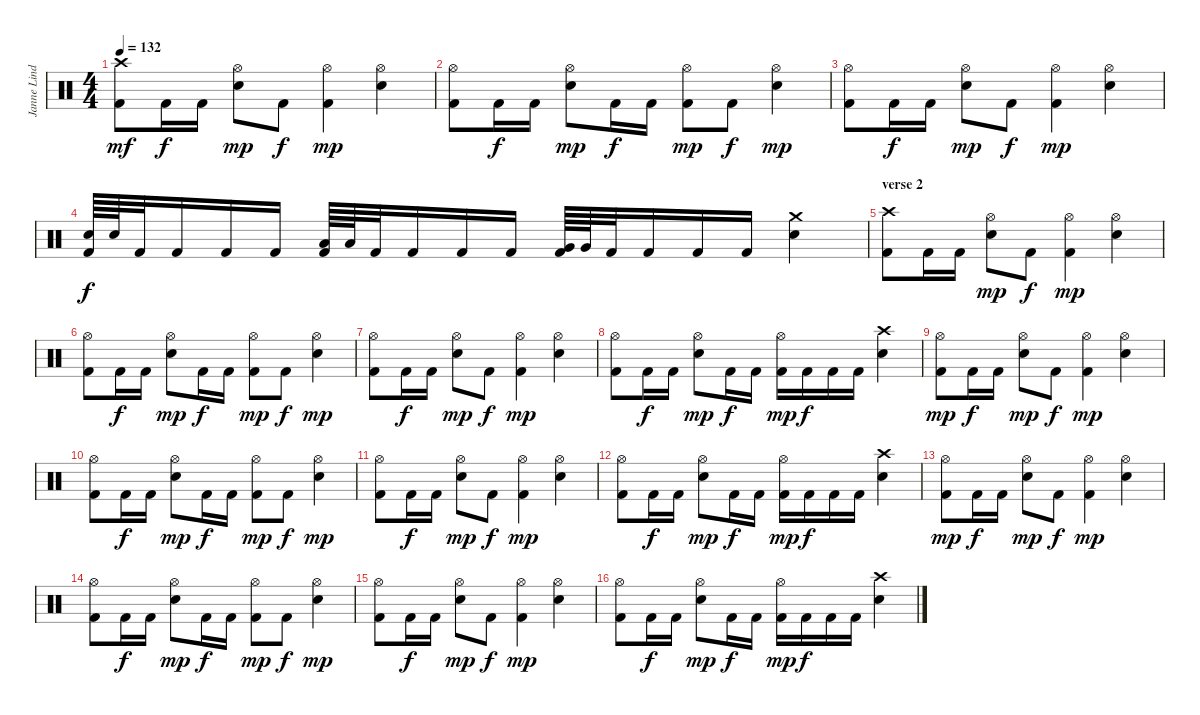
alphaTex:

\track ("Janne Lindh" "Janne Lind") {instrument percussion}
\staff {score}
\articulation defaults
\ts (4 4)
\tempo 132
\clef neutral
\ks c
("Kick (hit) 2" "Crash high (hit)").8{dy mf} "Kick (hit) 2".16{dy f} "Kick (hit) 2".16 ("Hi-Hat (open)" "Snare (hit) 2").8{dy mp} "Kick (hit) 2".8{dy f} ("Kick (hit) 2" "Hi-Hat (open)").4{dy mp} ("Hi-Hat (open)" "Snare (hit) 2").4 |
("Kick (hit) 2" "Hi-Hat (open)").8 "Kick (hit) 2".16{dy f} "Kick (hit) 2".16 ("Hi-Hat (open)" "Snare (hit) 2").8{dy mp} "Kick (hit) 2".16{dy f} "Kick (hit) 2".16 ("Kick (hit) 2" "Hi-Hat (open)").8{dy mp} "Kick (hit) 2".8{dy f} ("Hi-Hat (open)" "Snare (hit) 2").4{dy mp} |
("Kick (hit) 2" "Hi-Hat (open)").8 "Kick (hit) 2".16{dy f} "Kick (hit) 2".16 ("Hi-Hat (open)" "Snare (hit) 2").8{dy mp} "Kick (hit) 2".8{dy f} ("Kick (hit) 2" "Hi-Hat (open)").4{dy mp} ("Hi-Hat (open)" "Snare (hit) 2").4 |
("Kick (hit) 2" "Snare (hit) 2").64{dy f} "Snare (hit) 2".64 "Kick (hit) 2".32 "Kick (hit) 2".16 "Kick (hit) 2".16 "Kick (hit) 2".16 ("Kick (hit) 2" "Low Tom (hit)").64 "Low Tom (hit)".64 "Kick (hit) 2".32 "Kick (hit) 2".16 "Kick (hit) 2".16 "Kick (hit) 2".16 ("Kick (hit) 2" "Very Low Tom (hit)").64 "Very Low Tom (hit)".64 "Kick (hit) 2".32 "Kick (hit) 2".16 "Kick (hit) 2".16 "Kick (hit) 2".16 ("Crash medium (hit)" "Snare (hit) 2").4 |
\section ("" "verse 2")
("Kick (hit) 2" "Crash high (hit)").8 "Kick (hit) 2".16 "Kick (hit) 2".16 ("Hi-Hat (open)" "Snare (hit) 2").8{dy mp} "Kick (hit) 2".8{dy f} ("Kick (hit) 2" "Hi-Hat (open)").4{dy mp} ("Hi-Hat (open)" "Snare (hit) 2").4 |
("Kick (hit) 2" "Hi-Hat (open)").8 "Kick (hit) 2".16{dy f} "Kick (hit) 2".16 ("Hi-Hat (open)" "Snare (hit) 2").8{dy mp} "Kick (hit) 2".16{dy f} "Kick (hit) 2".16 ("Kick (hit) 2" "Hi-Hat (open)").8{dy mp} "Kick (hit) 2".8{dy f} ("Hi-Hat (open)" "Snare (hit) 2").4{dy mp} |
("Kick (hit) 2" "Hi-Hat (open)").8 "Kick (hit) 2".16{dy f} "Kick (hit) 2".16 ("Hi-Hat (open)" "Snare (hit) 2").8{dy mp} "Kick (hit) 2".8{dy f} ("Kick (hit) 2" "Hi-Hat (open)").4{dy mp} ("Hi-Hat (open)" "Snare (hit) 2").4 |
("Kick (hit) 2" "Hi-Hat (open)").8 "Kick (hit) 2".16{dy f} "Kick (hit) 2".16 ("Hi-Hat (open)" "Snare (hit) 2").8{dy mp} "Kick (hit) 2".16{dy f} "Kick (hit) 2".16 ("Kick (hit) 2" "Hi-Hat (open)").16{dy mp} "Kick (hit) 2".16{dy f} "Kick (hit) 2".16 "Kick (hit) 2".16 ("Crash high (hit)" "Snare (hit) 2").4 |
("Kick (hit) 2" "Hi-Hat (open)").8{dy mp} "Kick (hit) 2".16{dy f} "Kick (hit) 2".16 ("Hi-Hat (open)" "Snare (hit) 2").8{dy mp} "Kick (hit) 2".8{dy f} ("Kick (hit) 2" "Hi-Hat (open)").4{dy mp} ("Hi-Hat (open)" "Snare (hit) 2").4 |
("Kick (hit) 2" "Hi-Hat (open)").8 "Kick (hit) 2".16{dy f} "Kick (hit) 2".16 ("Hi-Hat (open)" "Snare (hit) 2").8{dy mp} "Kick (hit) 2".16{dy f} "Kick (hit) 2".16 ("Kick (hit) 2" "Hi-Hat (open)").8{dy mp} "Kick (hit) 2".8{dy f} ("Hi-Hat (open)" "Snare (hit) 2").4{dy mp} |
("Kick (hit) 2" "Hi-Hat (open)").8 "Kick (hit) 2".16{dy f} "Kick (hit) 2".16 ("Hi-Hat (open)" "Snare (hit) 2").8{dy mp} "Kick (hit) 2".8{dy f} ("Kick (hit) 2" "Hi-Hat (open)").4{dy mp} ("Hi-Hat (open)" "Snare (hit) 2").4 |
("Kick (hit) 2" "Hi-Hat (open)").8 "Kick (hit) 2".16{dy f} "Kick (hit) 2".16 ("Hi-Hat (open)" "Snare (hit) 2").8{dy mp} "Kick (hit) 2".16{dy f} "Kick (hit) 2".16 ("Kick (hit) 2" "Hi-Hat (open)").16{dy mp} "Kick (hit) 2".16{dy f} "Kick (hit) 2".16 "Kick (hit) 2".16 ("Crash high (hit)" "Snare (hit) 2").4 |
("Kick (hit) 2" "Hi-Hat (open)").8{dy mp} "Kick (hit) 2".16{dy f} "Kick (hit) 2".16 ("Hi-Hat (open)" "Snare (hit) 2").8{dy mp} "Kick (hit) 2".8{dy f} ("Kick (hit) 2" "Hi-Hat (open)").4{dy mp} ("Hi-Hat (open)" "Snare (hit) 2").4 |
("Kick (hit) 2" "Hi-Hat (open)").8 "Kick (hit) 2".16{dy f} "Kick (hit) 2".16 ("Hi-Hat (open)" "Snare (hit) 2").8{dy mp} "Kick (hit) 2".16{dy f} "Kick (hit) 2".16 ("Kick (hit) 2" "Hi-Hat (open)").8{dy mp} "Kick (hit) 2".8{dy f} ("Hi-Hat (open)" "Snare (hit) 2").4{dy mp} |
("Kick (hit) 2" "Hi-Hat (open)").8 "Kick (hit) 2".16{dy f} "Kick (hit) 2".16 ("Hi-Hat (open)" "Snare (hit) 2").8{dy mp} "Kick (hit) 2".8{dy f} ("Kick (hit) 2" "Hi-Hat (open)").4{dy mp} ("Hi-Hat (open)" "Snare (hit) 2").4 |
("Kick (hit) 2" "Hi-Hat (open)").8 "Kick (hit) 2".16{dy f} "Kick (hit) 2".16 ("Hi-Hat (open)" "Snare (hit) 2").8{dy mp} "Kick (hit) 2".16{dy f} "Kick (hit) 2".16 ("Kick (hit) 2" "Hi-Hat (open)").16{dy mp} "Kick (hit) 2".16{dy f} "Kick (hit) 2".16 "Kick (hit) 2".16 ("Crash high (hit)" "Snare (hit) 2").4
